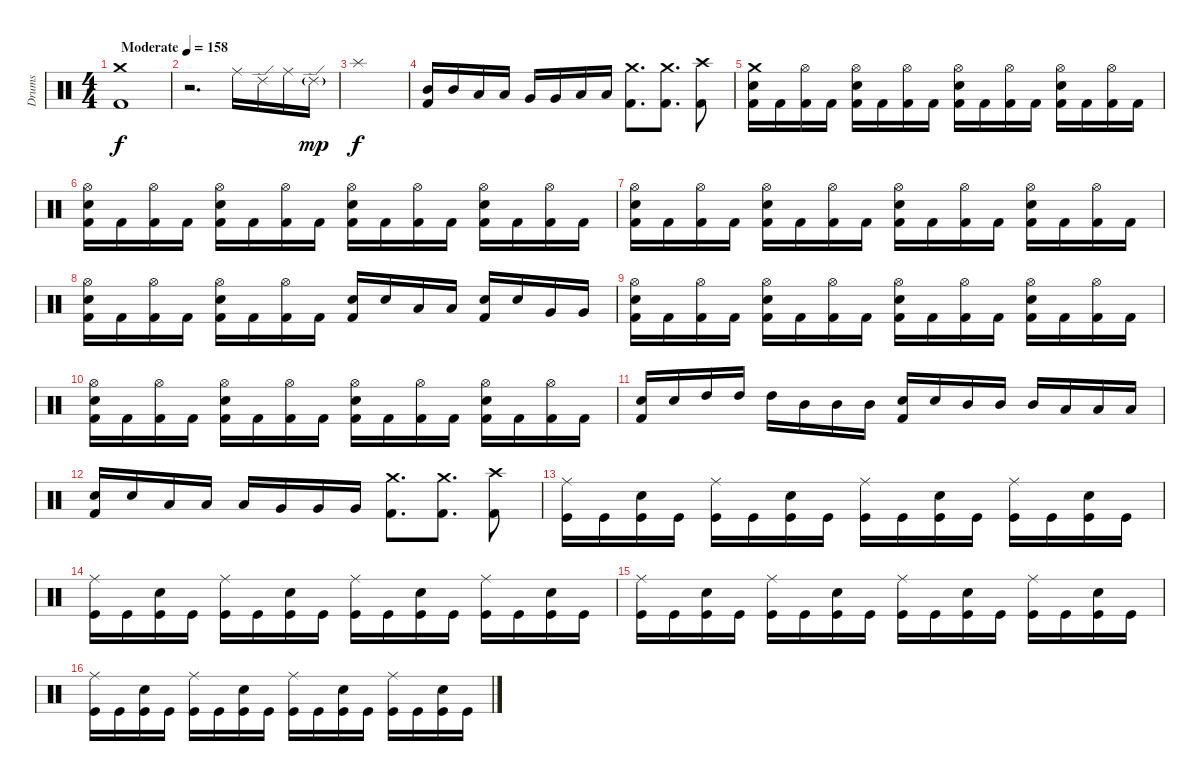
\track ("Drums" "Drums") {instrument percussion}
\staff {score}
\articulation defaults
\ts (4 4)
\tempo (158 "Moderate")
\clef neutral
\ks c
("Crash medium (hit)" "Kick (hit) 2").1{dy f} |
r.2{d} "Ride (middle)".16 "Ride (edge) 2".16 "Ride (middle)".16 "Ride (edge) 2"{g}.16{dy mp} |
"Splash (hit)".1{dy f} |
("Mid Tom (hit)" "Kick (hit) 2").16 "Mid Tom (hit)".16 "Low Tom (hit)".16 "Low Tom (hit)".16 "Very Low Tom (hit)".16 "Very Low Tom (hit)".16 "Low Floor Tom (hit)".16 "Low Floor Tom (hit)".16 ("Crash medium (hit)" "Kick (hit) 2").8{d} ("Crash medium (hit)" "Kick (hit) 2").8{d} ("Crash high (hit)" "Kick (hit) 2").8 |
("Crash medium (hit)" "Snare (hit) 2" "Kick (hit) 2").16 "Kick (hit) 2".16 ("Hi-Hat (open)" "Kick (hit) 2").16 "Kick (hit) 2".16 ("Hi-Hat (open)" "Snare (hit) 2" "Kick (hit) 2").16 "Kick (hit) 2".16 ("Hi-Hat (open)" "Kick (hit) 2").16 "Kick (hit) 2".16 ("Hi-Hat (open)" "Snare (hit) 2" "Kick (hit) 2").16 "Kick (hit) 2".16 ("Hi-Hat (open)" "Kick (hit) 2").16 "Kick (hit) 2".16 ("Hi-Hat (open)" "Snare (hit) 2" "Kick (hit) 2").16 "Kick (hit) 2".16 ("Hi-Hat (open)" "Kick (hit) 2").16 "Kick (hit) 2".16 |
("Hi-Hat (open)" "Snare (hit) 2" "Kick (hit) 2").16 "Kick (hit) 2".16 ("Hi-Hat (open)" "Kick (hit) 2").16 "Kick (hit) 2".16 ("Hi-Hat (open)" "Snare (hit) 2" "Kick (hit) 2").16 "Kick (hit) 2".16 ("Hi-Hat (open)" "Kick (hit) 2").16 "Kick (hit) 2".16 ("Hi-Hat (open)" "Snare (hit) 2" "Kick (hit) 2").16 "Kick (hit) 2".16 ("Hi-Hat (open)" "Kick (hit) 2").16 "Kick (hit) 2".16 ("Hi-Hat (open)" "Snare (hit) 2" "Kick (hit) 2").16 "Kick (hit) 2".16 ("Hi-Hat (open)" "Kick (hit) 2").16 "Kick (hit) 2".16 |
("Hi-Hat (open)" "Snare (hit) 2" "Kick (hit) 2").16 "Kick (hit) 2".16 ("Hi-Hat (open)" "Kick (hit) 2").16 "Kick (hit) 2".16 ("Hi-Hat (open)" "Snare (hit) 2" "Kick (hit) 2").16 "Kick (hit) 2".16 ("Hi-Hat (open)" "Kick (hit) 2").16 "Kick (hit) 2".16 ("Hi-Hat (open)" "Snare (hit) 2" "Kick (hit) 2").16 "Kick (hit) 2".16 ("Hi-Hat (open)" "Kick (hit) 2").16 "Kick (hit) 2".16 ("Hi-Hat (open)" "Snare (hit) 2" "Kick (hit) 2").16 "Kick (hit) 2".16 ("Hi-Hat (open)" "Kick (hit) 2").16 "Kick (hit) 2".16 |
("Hi-Hat (open)" "Snare (hit) 2" "Kick (hit) 2").16 "Kick (hit) 2".16 ("Hi-Hat (open)" "Kick (hit) 2").16 "Kick (hit) 2".16 ("Hi-Hat (open)" "Snare (hit) 2" "Kick (hit) 2").16 "Kick (hit) 2".16 ("Hi-Hat (open)" "Kick (hit) 2").16 "Kick (hit) 2".16 ("Snare (hit) 2" "Kick (hit) 2").16 "Snare (hit) 2".16 "Low Tom (hit)".16 "Low Tom (hit)".16 ("Snare (hit) 2" "Kick (hit) 2").16 "Snare (hit) 2".16 "Very Low Tom (hit)".16 "Very Low Tom (hit)".16 |
("Hi-Hat (open)" "Snare (hit) 2" "Kick (hit) 2").16 "Kick (hit) 2".16 ("Hi-Hat (open)" "Kick (hit) 2").16 "Kick (hit) 2".16 ("Hi-Hat (open)" "Snare (hit) 2" "Kick (hit) 2").16 "Kick (hit) 2".16 ("Hi-Hat (open)" "Kick (hit) 2").16 "Kick (hit) 2".16 ("Hi-Hat (open)" "Snare (hit) 2" "Kick (hit) 2").16 "Kick (hit) 2".16 ("Hi-Hat (open)" "Kick (hit) 2").16 "Kick (hit) 2".16 ("Hi-Hat (open)" "Snare (hit) 2" "Kick (hit) 2").16 "Kick (hit) 2".16 ("Hi-Hat (open)" "Kick (hit) 2").16 "Kick (hit) 2".16 |
("Hi-Hat (open)" "Snare (hit) 2" "Kick (hit) 2").16 "Kick (hit) 2".16 ("Hi-Hat (open)" "Kick (hit) 2").16 "Kick (hit) 2".16 ("Hi-Hat (open)" "Snare (hit) 2" "Kick (hit) 2").16 "Kick (hit) 2".16 ("Hi-Hat (open)" "Kick (hit) 2").16 "Kick (hit) 2".16 ("Hi-Hat (open)" "Snare (hit) 2" "Kick (hit) 2").16 "Kick (hit) 2".16 ("Hi-Hat (open)" "Kick (hit) 2").16 "Kick (hit) 2".16 ("Hi-Hat (open)" "Snare (hit) 2" "Kick (hit) 2").16 "Kick (hit) 2".16 ("Hi-Hat (open)" "Kick (hit) 2").16 "Kick (hit) 2".16 |
("Snare (hit) 2" "Kick (hit) 2").16 "Snare (hit) 2".16 "High Tom (hit)".16 "High Tom (hit)".16 "High Tom (hit)".16 "Mid Tom (hit)".16 "Mid Tom (hit)".16 "Mid Tom (hit)".16 ("Snare (hit) 2" "Kick (hit) 2").16 "Snare (hit) 2".16 "Mid Tom (hit)".16 "Mid Tom (hit)".16 "Mid Tom (hit)".16 "Low Tom (hit)".16 "Low Tom (hit)".16 "Low Tom (hit)".16 |
("Snare (hit) 2" "Kick (hit) 2").16 "Snare (hit) 2".16 "Low Tom (hit)".16 "Low Tom (hit)".16 "Low Tom (hit)".16 "Very Low Tom (hit)".16 "Very Low Tom (hit)".16 "Very Low Tom (hit)".16 ("Crash medium (hit)" "Kick (hit) 2").8{d} ("Crash medium (hit)" "Kick (hit) 2").8{d} ("Crash high (hit)" "Kick (hit) 2").8 |
("Ride (middle)" "Kick (hit)").16 "Kick (hit)".16 ("Snare (hit) 2" "Kick (hit)").16 "Kick (hit)".16 ("Ride (middle)" "Kick (hit)").16 "Kick (hit)".16 ("Snare (hit) 2" "Kick (hit)").16 "Kick (hit)".16 ("Ride (middle)" "Kick (hit)").16 "Kick (hit)".16 ("Snare (hit) 2" "Kick (hit)").16 "Kick (hit)".16 ("Ride (middle)" "Kick (hit)").16 "Kick (hit)".16 ("Snare (hit) 2" "Kick (hit)").16 "Kick (hit)".16 |
("Ride (middle)" "Kick (hit)").16 "Kick (hit)".16 ("Snare (hit) 2" "Kick (hit)").16 "Kick (hit)".16 ("Ride (middle)" "Kick (hit)").16 "Kick (hit)".16 ("Snare (hit) 2" "Kick (hit)").16 "Kick (hit)".16 ("Ride (middle)" "Kick (hit)").16 "Kick (hit)".16 ("Snare (hit) 2" "Kick (hit)").16 "Kick (hit)".16 ("Ride (middle)" "Kick (hit)").16 "Kick (hit)".16 ("Snare (hit) 2" "Kick (hit)").16 "Kick (hit)".16 |
("Ride (middle)" "Kick (hit)").16 "Kick (hit)".16 ("Snare (hit) 2" "Kick (hit)").16 "Kick (hit)".16 ("Ride (middle)" "Kick (hit)").16 "Kick (hit)".16 ("Snare (hit) 2" "Kick (hit)").16 "Kick (hit)".16 ("Ride (middle)" "Kick (hit)").16 "Kick (hit)".16 ("Snare (hit) 2" "Kick (hit)").16 "Kick (hit)".16 ("Ride (middle)" "Kick (hit)").16 "Kick (hit)".16 ("Snare (hit) 2" "Kick (hit)").16 "Kick (hit)".16 |
("Ride (middle)" "Kick (hit)").16 "Kick (hit)".16 ("Snare (hit) 2" "Kick (hit)").16 "Kick (hit)".16 ("Ride (middle)" "Kick (hit)").16 "Kick (hit)".16 ("Snare (hit) 2" "Kick (hit)").16 "Kick (hit)".16 ("Ride (middle)" "Kick (hit)").16 "Kick (hit)".16 ("Snare (hit) 2" "Kick (hit)").16 "Kick (hit)".16 ("Ride (middle)" "Kick (hit)").16 "Kick (hit)".16 ("Snare (hit) 2" "Kick (hit)").16 "Kick (hit)".16
